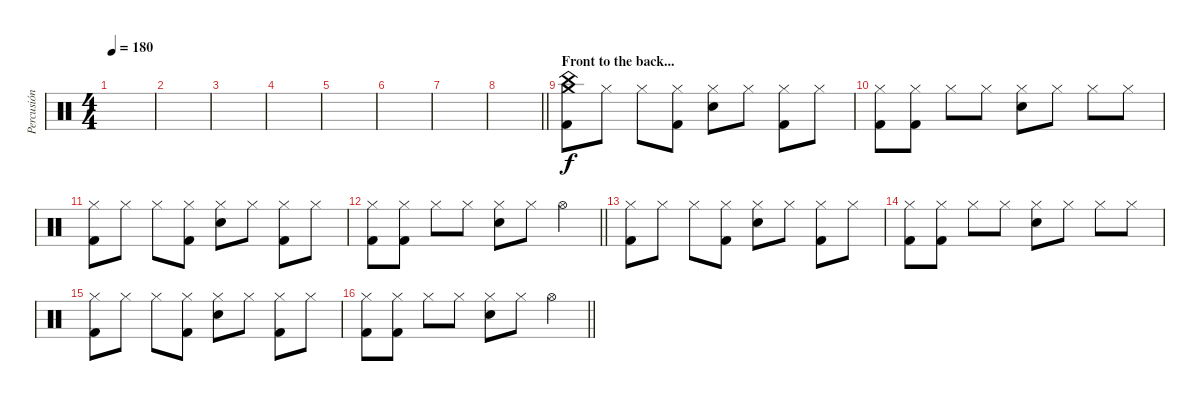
\track ("Percusión" "Percusión") {instrument percussion}
\staff {score}
\articulation defaults
\ts (4 4)
\tempo 180
\clef neutral
\ks c
|
|
|
|
|
|
|
\barLineRight lightlight
|
\section ("" "Front to the back...")
("Crash medium (hit)" "China (hit)" "Kick (hit) 2").8 "Hi-Hat (closed)".8 "Hi-Hat (closed)".8 ("Hi-Hat (closed)" "Kick (hit) 2").8 ("Hi-Hat (closed)" "Snare (hit) 2").8 "Hi-Hat (closed)".8 ("Hi-Hat (closed)" "Kick (hit) 2").8 "Hi-Hat (closed)".8 |
("Hi-Hat (closed)" "Kick (hit) 2").8 ("Hi-Hat (closed)" "Kick (hit) 2").8 "Hi-Hat (closed)".8 "Hi-Hat (closed)".8 ("Hi-Hat (closed)" "Snare (hit) 2").8 "Hi-Hat (closed)".8 "Hi-Hat (closed)".8 "Hi-Hat (closed)".8 |
("Hi-Hat (closed)" "Kick (hit) 2").8 "Hi-Hat (closed)".8 "Hi-Hat (closed)".8 ("Hi-Hat (closed)" "Kick (hit) 2").8 ("Hi-Hat (closed)" "Snare (hit) 2").8 "Hi-Hat (closed)".8 ("Hi-Hat (closed)" "Kick (hit) 2").8 "Hi-Hat (closed)".8 |
\barLineRight lightlight
("Hi-Hat (closed)" "Kick (hit) 2").8 ("Hi-Hat (closed)" "Kick (hit) 2").8 "Hi-Hat (closed)".8 "Hi-Hat (closed)".8 ("Hi-Hat (closed)" "Snare (hit) 2").8 "Hi-Hat (closed)".8 "Hi-Hat (open)".4 |
("Hi-Hat (closed)" "Kick (hit) 2").8 "Hi-Hat (closed)".8 "Hi-Hat (closed)".8 ("Hi-Hat (closed)" "Kick (hit) 2").8 ("Hi-Hat (closed)" "Snare (hit) 2").8 "Hi-Hat (closed)".8 ("Hi-Hat (closed)" "Kick (hit) 2").8 "Hi-Hat (closed)".8 |
("Hi-Hat (closed)" "Kick (hit) 2").8 ("Hi-Hat (closed)" "Kick (hit) 2").8 "Hi-Hat (closed)".8 "Hi-Hat (closed)".8 ("Hi-Hat (closed)" "Snare (hit) 2").8 "Hi-Hat (closed)".8 "Hi-Hat (closed)".8 "Hi-Hat (closed)".8 |
("Hi-Hat (closed)" "Kick (hit) 2").8 "Hi-Hat (closed)".8 "Hi-Hat (closed)".8 ("Hi-Hat (closed)" "Kick (hit) 2").8 ("Hi-Hat (closed)" "Snare (hit) 2").8 "Hi-Hat (closed)".8 ("Hi-Hat (closed)" "Kick (hit) 2").8 "Hi-Hat (closed)".8 |
\barLineRight lightlight
("Hi-Hat (closed)" "Kick (hit) 2").8 ("Hi-Hat (closed)" "Kick (hit) 2").8 "Hi-Hat (closed)".8 "Hi-Hat (closed)".8 ("Hi-Hat (closed)" "Snare (hit) 2").8 "Hi-Hat (closed)".8 "Hi-Hat (open)".4
